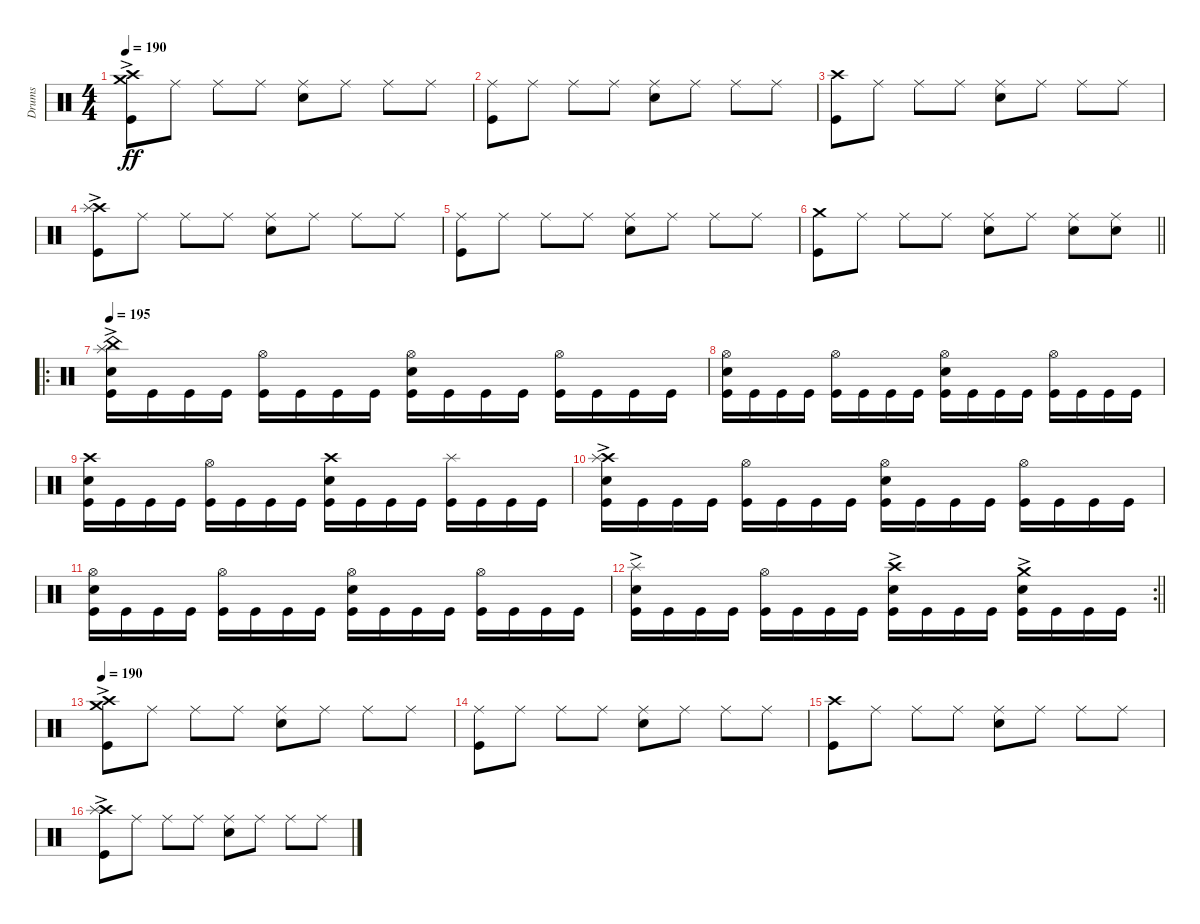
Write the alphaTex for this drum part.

\track ("Drums" "Drums") {instrument percussion}
\staff {score}
\articulation defaults
\ts (4 4)
\section ("" "")
\tempo 190
\clef neutral
\ks c
("Crash high (hit)" "Crash medium (hit)"{ac} "Kick (hit)").8{dy ff} "Ride (middle)".8 "Ride (middle)".8 "Ride (middle)".8 ("Ride (middle)" "Electric Snare (hit)").8 "Ride (middle)".8 "Ride (middle)".8 "Ride (middle)".8 |
("Ride (middle)" "Kick (hit)").8 "Ride (middle)".8 "Ride (middle)".8 "Ride (middle)".8 ("Ride (middle)" "Electric Snare (hit)").8 "Ride (middle)".8 "Ride (middle)".8 "Ride (middle)".8 |
("Crash high (hit)" "Kick (hit)").8 "Ride (middle)".8 "Ride (middle)".8 "Ride (middle)".8 ("Ride (middle)" "Electric Snare (hit)").8 "Ride (middle)".8 "Ride (middle)".8 "Ride (middle)".8 |
("Crash high (hit)" "Splash (hit)"{ac} "Kick (hit)").8 "Ride (middle)".8 "Ride (middle)".8 "Ride (middle)".8 ("Ride (middle)" "Electric Snare (hit)").8 "Ride (middle)".8 "Ride (middle)".8 "Ride (middle)".8 |
("Ride (middle)" "Kick (hit)").8 "Ride (middle)".8 "Ride (middle)".8 "Ride (middle)".8 ("Ride (middle)" "Electric Snare (hit)").8 "Ride (middle)".8 "Ride (middle)".8 "Ride (middle)".8 |
\barLineRight lightlight
("Crash medium (hit)" "Kick (hit)").8 "Ride (middle)".8 "Ride (middle)".8 "Ride (middle)".8 ("Ride (middle)" "Electric Snare (hit)").8 "Ride (middle)".8 ("Ride (middle)" "Electric Snare (hit)").8 ("Ride (middle)" "Electric Snare (hit)").8 |
\ro
\section ("" "")
\tempo 195
("China (hit)"{ac} "Splash (hit)" "Electric Snare (hit)"{ac} "Kick (hit)").16 "Kick (hit)".16 "Kick (hit)".16 "Kick (hit)".16 ("Hi-Hat (open)" "Kick (hit)").16 "Kick (hit)".16 "Kick (hit)".16 "Kick (hit)".16 ("Hi-Hat (open)" "Electric Snare (hit)" "Kick (hit)").16 "Kick (hit)".16 "Kick (hit)".16 "Kick (hit)".16 ("Hi-Hat (open)" "Kick (hit)").16 "Kick (hit)".16 "Kick (hit)".16 "Kick (hit)".16 |
("Hi-Hat (open)" "Electric Snare (hit)" "Kick (hit)").16 "Kick (hit)".16 "Kick (hit)".16 "Kick (hit)".16 ("Hi-Hat (open)" "Kick (hit)").16 "Kick (hit)".16 "Kick (hit)".16 "Kick (hit)".16 ("Hi-Hat (open)" "Electric Snare (hit)" "Kick (hit)").16 "Kick (hit)".16 "Kick (hit)".16 "Kick (hit)".16 ("Hi-Hat (open)" "Kick (hit)").16 "Kick (hit)".16 "Kick (hit)".16 "Kick (hit)".16 |
("Crash high (hit)" "Electric Snare (hit)" "Kick (hit)").16 "Kick (hit)".16 "Kick (hit)".16 "Kick (hit)".16 ("Hi-Hat (open)" "Kick (hit)").16 "Kick (hit)".16 "Kick (hit)".16 "Kick (hit)".16 ("Crash high (hit)" "Electric Snare (hit)" "Kick (hit)").16 "Kick (hit)".16 "Kick (hit)".16 "Kick (hit)".16 ("Splash (hit)" "Kick (hit)").16 "Kick (hit)".16 "Kick (hit)".16 "Kick (hit)".16 |
("Crash high (hit)" "Splash (hit)" "Electric Snare (hit)"{ac} "Kick (hit)").16 "Kick (hit)".16 "Kick (hit)".16 "Kick (hit)".16 ("Hi-Hat (open)" "Kick (hit)").16 "Kick (hit)".16 "Kick (hit)".16 "Kick (hit)".16 ("Hi-Hat (open)" "Electric Snare (hit)" "Kick (hit)").16 "Kick (hit)".16 "Kick (hit)".16 "Kick (hit)".16 ("Hi-Hat (open)" "Kick (hit)").16 "Kick (hit)".16 "Kick (hit)".16 "Kick (hit)".16 |
("Hi-Hat (open)" "Electric Snare (hit)" "Kick (hit)").16 "Kick (hit)".16 "Kick (hit)".16 "Kick (hit)".16 ("Hi-Hat (open)" "Kick (hit)").16 "Kick (hit)".16 "Kick (hit)".16 "Kick (hit)".16 ("Hi-Hat (open)" "Electric Snare (hit)" "Kick (hit)").16 "Kick (hit)".16 "Kick (hit)".16 "Kick (hit)".16 ("Hi-Hat (open)" "Kick (hit)").16 "Kick (hit)".16 "Kick (hit)".16 "Kick (hit)".16 |
\rc 2
\barLineRight lightlight
("Splash (hit)"{ac} "Electric Snare (hit)" "Kick (hit)").16 "Kick (hit)".16 "Kick (hit)".16 "Kick (hit)".16 ("Hi-Hat (open)" "Kick (hit)").16 "Kick (hit)".16 "Kick (hit)".16 "Kick (hit)".16 ("Crash high (hit)" "Electric Snare (hit)"{ac} "Kick (hit)").16 "Kick (hit)".16 "Kick (hit)".16 "Kick (hit)".16 ("Crash medium (hit)" "Electric Snare (hit)"{ac} "Kick (hit)").16 "Kick (hit)".16 "Kick (hit)".16 "Kick (hit)".16 |
\section ("" "")
\tempo 190
("Crash high (hit)" "Crash medium (hit)"{ac} "Kick (hit)").8 "Ride (middle)".8 "Ride (middle)".8 "Ride (middle)".8 ("Ride (middle)" "Electric Snare (hit)").8 "Ride (middle)".8 "Ride (middle)".8 "Ride (middle)".8 |
("Ride (middle)" "Kick (hit)").8 "Ride (middle)".8 "Ride (middle)".8 "Ride (middle)".8 ("Ride (middle)" "Electric Snare (hit)").8 "Ride (middle)".8 "Ride (middle)".8 "Ride (middle)".8 |
("Crash high (hit)" "Kick (hit)").8 "Ride (middle)".8 "Ride (middle)".8 "Ride (middle)".8 ("Ride (middle)" "Electric Snare (hit)").8 "Ride (middle)".8 "Ride (middle)".8 "Ride (middle)".8 |
("Crash high (hit)" "Splash (hit)"{ac} "Kick (hit)").8 "Ride (middle)".8 "Ride (middle)".8 "Ride (middle)".8 ("Ride (middle)" "Electric Snare (hit)").8 "Ride (middle)".8 "Ride (middle)".8 "Ride (middle)".8
